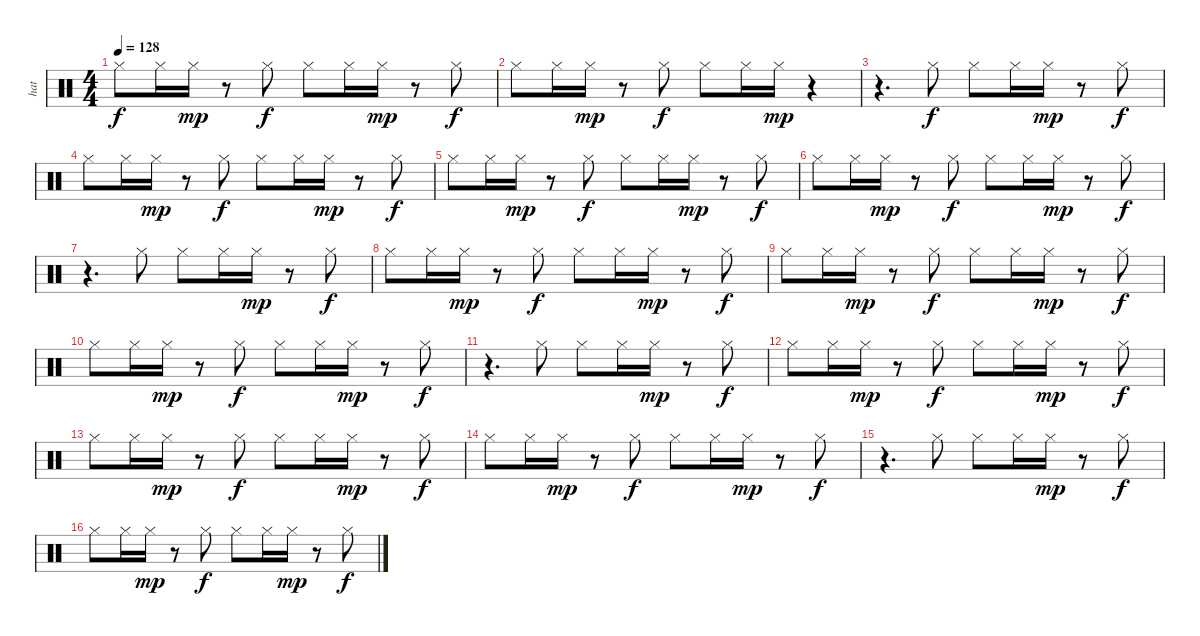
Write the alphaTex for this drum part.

\track ("hat" "hat") {instrument percussion}
\staff {score}
\articulation defaults
\ts (4 4)
\tempo 128
\clef neutral
\ks c "Hi-Hat (closed)".8{dy f} "Hi-Hat (closed)".16 "Hi-Hat (closed)".16{dy mp}
r.8 "Hi-Hat (closed)".8{dy f} "Hi-Hat (closed)".8 "Hi-Hat (closed)".16 "Hi-Hat (closed)".16{dy mp} r.8 "Hi-Hat (closed)".8{dy f} |
"Hi-Hat (closed)".8 "Hi-Hat (closed)".16 "Hi-Hat (closed)".16{dy mp} r.8 "Hi-Hat (closed)".8{dy f} "Hi-Hat (closed)".8 "Hi-Hat (closed)".16 "Hi-Hat (closed)".16{dy mp} r.4 |
r.4{d} "Hi-Hat (closed)".8{dy f} "Hi-Hat (closed)".8 "Hi-Hat (closed)".16 "Hi-Hat (closed)".16{dy mp} r.8 "Hi-Hat (closed)".8{dy f} |
"Hi-Hat (closed)".8 "Hi-Hat (closed)".16 "Hi-Hat (closed)".16{dy mp} r.8 "Hi-Hat (closed)".8{dy f} "Hi-Hat (closed)".8 "Hi-Hat (closed)".16 "Hi-Hat (closed)".16{dy mp} r.8 "Hi-Hat (closed)".8{dy f} |
"Hi-Hat (closed)".8 "Hi-Hat (closed)".16 "Hi-Hat (closed)".16{dy mp} r.8 "Hi-Hat (closed)".8{dy f} "Hi-Hat (closed)".8 "Hi-Hat (closed)".16 "Hi-Hat (closed)".16{dy mp} r.8 "Hi-Hat (closed)".8{dy f} |
"Hi-Hat (closed)".8 "Hi-Hat (closed)".16 "Hi-Hat (closed)".16{dy mp} r.8 "Hi-Hat (closed)".8{dy f} "Hi-Hat (closed)".8 "Hi-Hat (closed)".16 "Hi-Hat (closed)".16{dy mp} r.8 "Hi-Hat (closed)".8{dy f} |
r.4{d} "Hi-Hat (closed)".8 "Hi-Hat (closed)".8 "Hi-Hat (closed)".16 "Hi-Hat (closed)".16{dy mp} r.8 "Hi-Hat (closed)".8{dy f} |
"Hi-Hat (closed)".8 "Hi-Hat (closed)".16 "Hi-Hat (closed)".16{dy mp} r.8 "Hi-Hat (closed)".8{dy f} "Hi-Hat (closed)".8 "Hi-Hat (closed)".16 "Hi-Hat (closed)".16{dy mp} r.8 "Hi-Hat (closed)".8{dy f} |
"Hi-Hat (closed)".8 "Hi-Hat (closed)".16 "Hi-Hat (closed)".16{dy mp} r.8 "Hi-Hat (closed)".8{dy f} "Hi-Hat (closed)".8 "Hi-Hat (closed)".16 "Hi-Hat (closed)".16{dy mp} r.8 "Hi-Hat (closed)".8{dy f} |
"Hi-Hat (closed)".8 "Hi-Hat (closed)".16 "Hi-Hat (closed)".16{dy mp} r.8 "Hi-Hat (closed)".8{dy f} "Hi-Hat (closed)".8 "Hi-Hat (closed)".16 "Hi-Hat (closed)".16{dy mp} r.8 "Hi-Hat (closed)".8{dy f} |
r.4{d} "Hi-Hat (closed)".8 "Hi-Hat (closed)".8 "Hi-Hat (closed)".16 "Hi-Hat (closed)".16{dy mp} r.8 "Hi-Hat (closed)".8{dy f} |
"Hi-Hat (closed)".8 "Hi-Hat (closed)".16 "Hi-Hat (closed)".16{dy mp} r.8 "Hi-Hat (closed)".8{dy f} "Hi-Hat (closed)".8 "Hi-Hat (closed)".16 "Hi-Hat (closed)".16{dy mp} r.8 "Hi-Hat (closed)".8{dy f} |
"Hi-Hat (closed)".8 "Hi-Hat (closed)".16 "Hi-Hat (closed)".16{dy mp} r.8 "Hi-Hat (closed)".8{dy f} "Hi-Hat (closed)".8 "Hi-Hat (closed)".16 "Hi-Hat (closed)".16{dy mp} r.8 "Hi-Hat (closed)".8{dy f} |
"Hi-Hat (closed)".8 "Hi-Hat (closed)".16 "Hi-Hat (closed)".16{dy mp} r.8 "Hi-Hat (closed)".8{dy f} "Hi-Hat (closed)".8 "Hi-Hat (closed)".16 "Hi-Hat (closed)".16{dy mp} r.8 "Hi-Hat (closed)".8{dy f} |
r.4{d} "Hi-Hat (closed)".8 "Hi-Hat (closed)".8 "Hi-Hat (closed)".16 "Hi-Hat (closed)".16{dy mp} r.8 "Hi-Hat (closed)".8{dy f} |
"Hi-Hat (closed)".8 "Hi-Hat (closed)".16 "Hi-Hat (closed)".16{dy mp} r.8 "Hi-Hat (closed)".8{dy f} "Hi-Hat (closed)".8 "Hi-Hat (closed)".16 "Hi-Hat (closed)".16{dy mp} r.8 "Hi-Hat (closed)".8{dy f}
